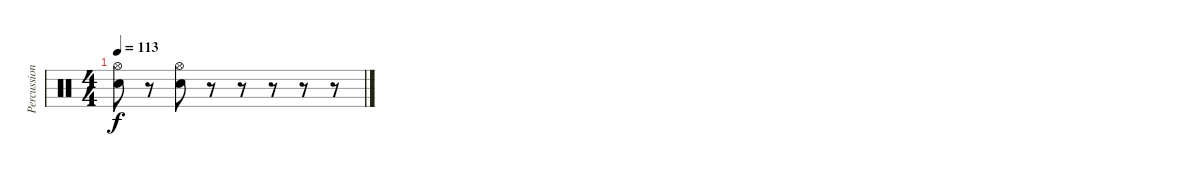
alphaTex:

\track ("Percussion" "Percussion") {instrument percussion}
\staff {score}
\articulation defaults
\ts (4 4)
\tempo 113
\clef neutral
\ks c
("Electric Snare (hit)" "Hi-Hat (open)").8{dy f} r.8 ("Electric Snare (hit)" "Hi-Hat (open)").8 r.8 r.8 r.8 r.8 r.8
